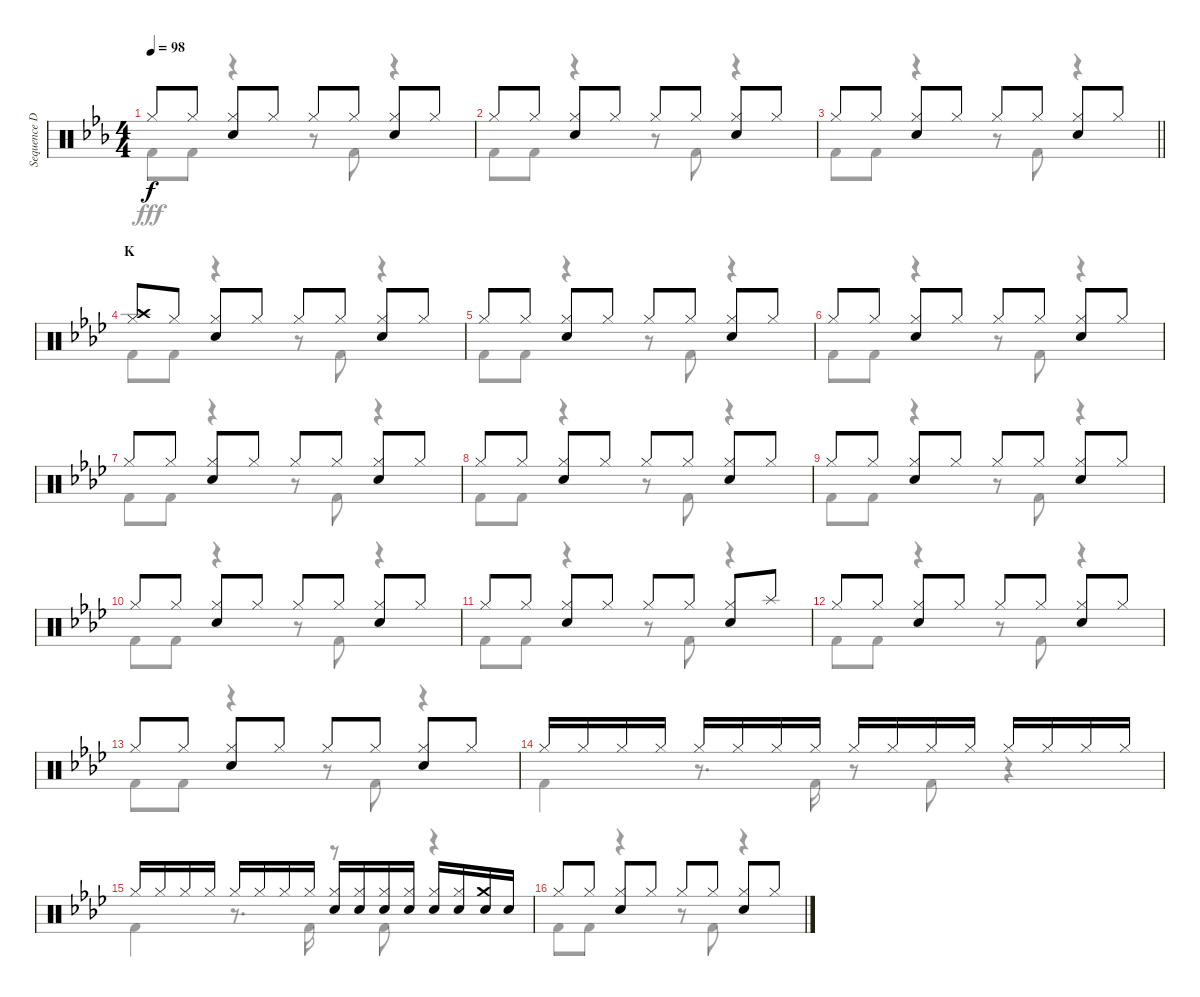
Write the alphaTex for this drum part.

\track ("Sequence Drums I" "Sequence D") {instrument percussion}
\staff {score}
\articulation defaults
\voice
\ts (4 4)
\tempo 98
\clef neutral
\ks eb "Hi-Hat (closed)".8{dy f} "Hi-Hat (closed)".8
("Hi-Hat (closed)" "Electric Snare (hit)").8 "Hi-Hat (closed)".8 "Hi-Hat (closed)".8 "Hi-Hat (closed)".8 ("Hi-Hat (closed)" "Electric Snare (hit)").8 "Hi-Hat (closed)".8 |
"Hi-Hat (closed)".8 "Hi-Hat (closed)".8 ("Hi-Hat (closed)" "Electric Snare (hit)").8 "Hi-Hat (closed)".8 "Hi-Hat (closed)".8 "Hi-Hat (closed)".8 ("Hi-Hat (closed)" "Electric Snare (hit)").8 "Hi-Hat (closed)".8 |
\barLineRight lightlight "Hi-Hat (closed)".8 "Hi-Hat (closed)".8
("Hi-Hat (closed)" "Electric Snare (hit)").8 "Hi-Hat (closed)".8 "Hi-Hat (closed)".8 "Hi-Hat (closed)".8 ("Hi-Hat (closed)" "Electric Snare (hit)").8 "Hi-Hat (closed)".8 |
\section ("" "K")
\ks ab
("Crash high (hit)" "Hi-Hat (closed)").8 "Hi-Hat (closed)".8 ("Hi-Hat (closed)" "Electric Snare (hit)").8 "Hi-Hat (closed)".8 "Hi-Hat (closed)".8 "Hi-Hat (closed)".8 ("Hi-Hat (closed)" "Electric Snare (hit)").8 "Hi-Hat (closed)".8 |
"Hi-Hat (closed)".8 "Hi-Hat (closed)".8 ("Hi-Hat (closed)" "Electric Snare (hit)").8 "Hi-Hat (closed)".8 "Hi-Hat (closed)".8 "Hi-Hat (closed)".8 ("Hi-Hat (closed)" "Electric Snare (hit)").8 "Hi-Hat (closed)".8 |
"Hi-Hat (closed)".8 "Hi-Hat (closed)".8 ("Hi-Hat (closed)" "Electric Snare (hit)").8 "Hi-Hat (closed)".8 "Hi-Hat (closed)".8 "Hi-Hat (closed)".8 ("Hi-Hat (closed)" "Electric Snare (hit)").8 "Hi-Hat (closed)".8 |
"Hi-Hat (closed)".8 "Hi-Hat (closed)".8 ("Hi-Hat (closed)" "Electric Snare (hit)").8 "Hi-Hat (closed)".8 "Hi-Hat (closed)".8 "Hi-Hat (closed)".8 ("Hi-Hat (closed)" "Electric Snare (hit)").8 "Hi-Hat (closed)".8 |
"Hi-Hat (closed)".8 "Hi-Hat (closed)".8 ("Hi-Hat (closed)" "Electric Snare (hit)").8 "Hi-Hat (closed)".8 "Hi-Hat (closed)".8 "Hi-Hat (closed)".8 ("Hi-Hat (closed)" "Electric Snare (hit)").8 "Hi-Hat (closed)".8 |
"Hi-Hat (closed)".8 "Hi-Hat (closed)".8 ("Hi-Hat (closed)" "Electric Snare (hit)").8 "Hi-Hat (closed)".8 "Hi-Hat (closed)".8 "Hi-Hat (closed)".8 ("Hi-Hat (closed)" "Electric Snare (hit)").8 "Hi-Hat (closed)".8 |
"Hi-Hat (closed)".8 "Hi-Hat (closed)".8 ("Hi-Hat (closed)" "Electric Snare (hit)").8 "Hi-Hat (closed)".8 "Hi-Hat (closed)".8 "Hi-Hat (closed)".8 ("Hi-Hat (closed)" "Electric Snare (hit)").8 "Hi-Hat (closed)".8 |
"Hi-Hat (closed)".8 "Hi-Hat (closed)".8 ("Hi-Hat (closed)" "Electric Snare (hit)").8 "Hi-Hat (closed)".8 "Hi-Hat (closed)".8 "Hi-Hat (closed)".8 ("Hi-Hat (closed)" "Electric Snare (hit)").8 "Splash (hit)".8 |
"Hi-Hat (closed)".8 "Hi-Hat (closed)".8 ("Hi-Hat (closed)" "Electric Snare (hit)").8 "Hi-Hat (closed)".8 "Hi-Hat (closed)".8 "Hi-Hat (closed)".8 ("Hi-Hat (closed)" "Electric Snare (hit)").8 "Hi-Hat (closed)".8 |
"Hi-Hat (closed)".8 "Hi-Hat (closed)".8 ("Hi-Hat (closed)" "Electric Snare (hit)").8 "Hi-Hat (closed)".8 "Hi-Hat (closed)".8 "Hi-Hat (closed)".8 ("Hi-Hat (closed)" "Electric Snare (hit)").8 "Hi-Hat (closed)".8 |
"Hi-Hat (closed)".16 "Hi-Hat (closed)".16 "Hi-Hat (closed)".16 "Hi-Hat (closed)".16 "Hi-Hat (closed)".16 "Hi-Hat (closed)".16 "Hi-Hat (closed)".16 "Hi-Hat (closed)".16 "Hi-Hat (closed)".16 "Hi-Hat (closed)".16 "Hi-Hat (closed)".16 "Hi-Hat (closed)".16 "Hi-Hat (closed)".16 "Hi-Hat (closed)".16 "Hi-Hat (closed)".16 "Hi-Hat (closed)".16 |
"Hi-Hat (closed)".16 "Hi-Hat (closed)".16 "Hi-Hat (closed)".16 "Hi-Hat (closed)".16 "Hi-Hat (closed)".16 "Hi-Hat (closed)".16 "Hi-Hat (closed)".16 "Hi-Hat (closed)".16 ("Hi-Hat (closed)" "Electric Snare (hit)").16 ("Hi-Hat (closed)" "Electric Snare (hit)").16 ("Hi-Hat (closed)" "Electric Snare (hit)").16 ("Hi-Hat (closed)" "Electric Snare (hit)").16 ("Hi-Hat (closed)" "Electric Snare (hit)").16 ("Hi-Hat (closed)" "Electric Snare (hit)").16 ("Crash medium (hit)" "Electric Snare (hit)").16 "Electric Snare (hit)".16 |
"Hi-Hat (closed)".8 "Hi-Hat (closed)".8 ("Hi-Hat (closed)" "Electric Snare (hit)").8 "Hi-Hat (closed)".8 "Hi-Hat (closed)".8 "Hi-Hat (closed)".8 ("Hi-Hat (closed)" "Electric Snare (hit)").8 "Hi-Hat (closed)".8
\voice
\clef neutral
\ottava regular
\simile none
\ks eb "Kick (hit) 2".8{dy fff} "Kick (hit) 2".8
r.4 r.8 "Kick (hit) 2".8 r.4 |
"Kick (hit) 2".8 "Kick (hit) 2".8 r.4 r.8 "Kick (hit) 2".8 r.4 |
\barLineRight lightlight "Kick (hit) 2".8 "Kick (hit) 2".8
r.4 r.8 "Kick (hit) 2".8 r.4 |
\ks ab "Kick (hit) 2".8 "Kick (hit) 2".8
r.4 r.8 "Kick (hit) 2".8 r.4 |
"Kick (hit) 2".8 "Kick (hit) 2".8 r.4 r.8 "Kick (hit) 2".8 r.4 |
"Kick (hit) 2".8 "Kick (hit) 2".8 r.4 r.8 "Kick (hit) 2".8 r.4 |
"Kick (hit) 2".8 "Kick (hit) 2".8 r.4 r.8 "Kick (hit) 2".8 r.4 |
"Kick (hit) 2".8 "Kick (hit) 2".8 r.4 r.8 "Kick (hit) 2".8 r.4 |
"Kick (hit) 2".8 "Kick (hit) 2".8 r.4 r.8 "Kick (hit) 2".8 r.4 |
"Kick (hit) 2".8 "Kick (hit) 2".8 r.4 r.8 "Kick (hit) 2".8 r.4 |
"Kick (hit) 2".8 "Kick (hit) 2".8 r.4 r.8 "Kick (hit) 2".8 r.4 |
"Kick (hit) 2".8 "Kick (hit) 2".8 r.4 r.8 "Kick (hit) 2".8 r.4 |
"Kick (hit) 2".8 "Kick (hit) 2".8 r.4 r.8 "Kick (hit) 2".8 r.4 |
"Kick (hit) 2".4 r.8{d} "Kick (hit) 2".16 r.8 "Kick (hit) 2".8 r.4 |
"Kick (hit) 2".4 r.8{d} "Kick (hit) 2".16 r.8 "Kick (hit) 2".8 r.4 |
"Kick (hit) 2".8 "Kick (hit) 2".8 r.4 r.8 "Kick (hit) 2".8 r.4
